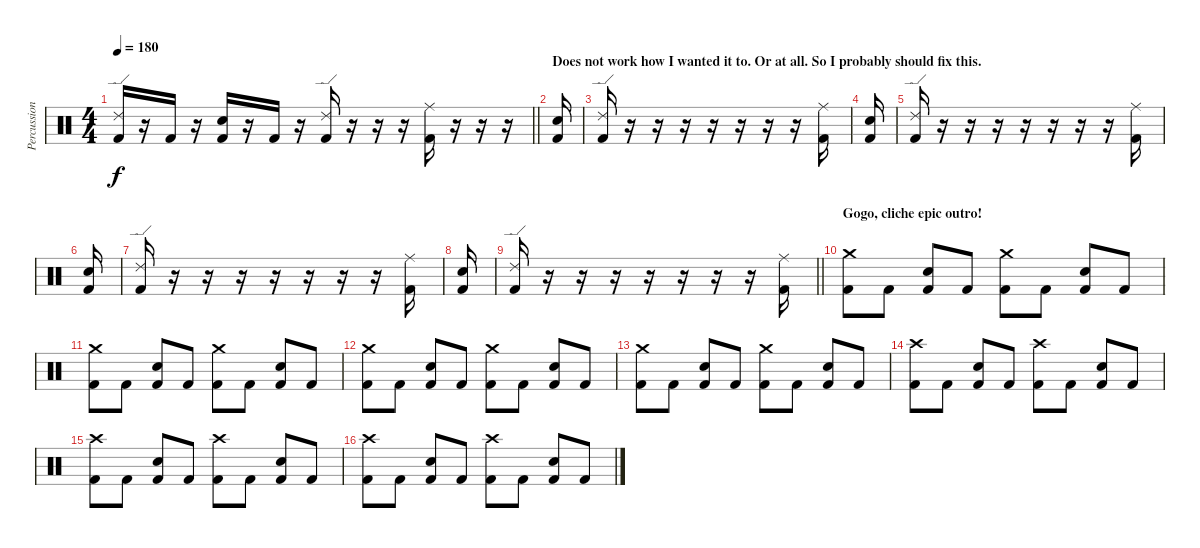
\track ("Percussion" "Percussion") {instrument percussion}
\staff {score}
\articulation defaults
\ts (4 4)
\tempo 180
\clef neutral
\barLineRight lightlight
\ks c
("Ride (edge) 2" "Kick (hit) 2").16{dy f} r.16 "Kick (hit) 2".16 r.16 ("Electric Snare (hit)" "Kick (hit) 2").16 r.16 "Kick (hit) 2".16 r.16 ("Ride (edge) 2" "Kick (hit) 2").16 r.16 r.16 r.16 ("Ride (middle)" "Kick (hit) 2").16 r.16 r.16 r.16 |
\section ("" "Does not work how I wanted it to. Or at all. So I probably should fix this.")
("Electric Snare (hit)" "Kick (hit) 2").16 |
("Ride (edge) 2" "Kick (hit) 2").16 r.16 r.16 r.16 r.16 r.16 r.16 r.16 ("Ride (middle)" "Kick (hit) 2").16 |
("Electric Snare (hit)" "Kick (hit) 2").16 |
("Ride (edge) 2" "Kick (hit) 2").16 r.16 r.16 r.16 r.16 r.16 r.16 r.16 ("Ride (middle)" "Kick (hit) 2").16 |
("Electric Snare (hit)" "Kick (hit) 2").16 |
("Ride (edge) 2" "Kick (hit) 2").16 r.16 r.16 r.16 r.16 r.16 r.16 r.16 ("Ride (middle)" "Kick (hit) 2").16 |
("Electric Snare (hit)" "Kick (hit) 2").16 |
\barLineRight lightlight
("Ride (edge) 2" "Kick (hit) 2").16 r.16 r.16 r.16 r.16 r.16 r.16 r.16 ("Ride (middle)" "Kick (hit) 2").16 |
\section ("" "Gogo, cliche epic outro!")
("Crash medium (hit)" "Kick (hit) 2").8 "Kick (hit) 2".8 ("Electric Snare (hit)" "Kick (hit) 2").8 "Kick (hit) 2".8 ("Crash medium (hit)" "Kick (hit) 2").8 "Kick (hit) 2".8 ("Electric Snare (hit)" "Kick (hit) 2").8 "Kick (hit) 2".8 |
("Crash medium (hit)" "Kick (hit) 2").8 "Kick (hit) 2".8 ("Electric Snare (hit)" "Kick (hit) 2").8 "Kick (hit) 2".8 ("Crash medium (hit)" "Kick (hit) 2").8 "Kick (hit) 2".8 ("Electric Snare (hit)" "Kick (hit) 2").8 "Kick (hit) 2".8 |
("Crash medium (hit)" "Kick (hit) 2").8 "Kick (hit) 2".8 ("Electric Snare (hit)" "Kick (hit) 2").8 "Kick (hit) 2".8 ("Crash medium (hit)" "Kick (hit) 2").8 "Kick (hit) 2".8 ("Electric Snare (hit)" "Kick (hit) 2").8 "Kick (hit) 2".8 |
("Crash medium (hit)" "Kick (hit) 2").8 "Kick (hit) 2".8 ("Electric Snare (hit)" "Kick (hit) 2").8 "Kick (hit) 2".8 ("Crash medium (hit)" "Kick (hit) 2").8 "Kick (hit) 2".8 ("Electric Snare (hit)" "Kick (hit) 2").8 "Kick (hit) 2".8 |
("Crash high (hit)" "Kick (hit) 2").8 "Kick (hit) 2".8 ("Electric Snare (hit)" "Kick (hit) 2").8 "Kick (hit) 2".8 ("Crash high (hit)" "Kick (hit) 2").8 "Kick (hit) 2".8 ("Electric Snare (hit)" "Kick (hit) 2").8 "Kick (hit) 2".8 |
("Crash high (hit)" "Kick (hit) 2").8 "Kick (hit) 2".8 ("Electric Snare (hit)" "Kick (hit) 2").8 "Kick (hit) 2".8 ("Crash high (hit)" "Kick (hit) 2").8 "Kick (hit) 2".8 ("Electric Snare (hit)" "Kick (hit) 2").8 "Kick (hit) 2".8 |
("Crash high (hit)" "Kick (hit) 2").8 "Kick (hit) 2".8 ("Electric Snare (hit)" "Kick (hit) 2").8 "Kick (hit) 2".8 ("Crash high (hit)" "Kick (hit) 2").8 "Kick (hit) 2".8 ("Electric Snare (hit)" "Kick (hit) 2").8 "Kick (hit) 2".8
